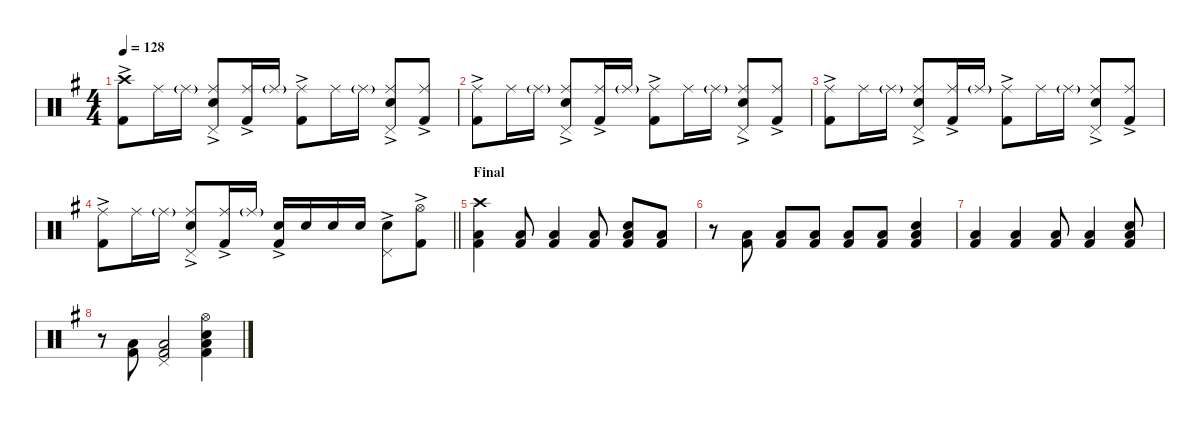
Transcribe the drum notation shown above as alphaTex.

\defaultSystemsLayout 4
\hideDynamics
\bracketExtendMode nobrackets
\singleTrackTrackNamePolicy hidden
\multiTrackTrackNamePolicy hidden
\firstSystemTrackNameMode fullname
\firstSystemTrackNameOrientation horizontal
\otherSystemsTrackNameOrientation horizontal
\track ("Drums" "drm.") {instrument percussion}
\staff {score}
\articulation defaults
\ts (4 4)
\tempo 128
\clef neutral
\ks g
("Crash high (hit)"{acc forcenatural} "Kick (hit) 2"{ac acc forcenatural}).8{dy f beam Down} "Ride (middle)"{acc forcenatural}.16{beam Down} "Ride (middle)"{g acc forcenatural}.16{dy mf beam Down} ("Ride (middle)"{acc forcenatural} "Pedal Hi-Hat (hit)"{acc forcenatural} "Snare (hit) 2"{ac acc forcenatural}).8{dy f beam Up} ("Ride (middle)"{acc forcenatural} "Kick (hit) 2"{ac acc forcenatural}).16{beam Up} "Ride (middle)"{g acc forcenatural}.16{dy mf beam Up} ("Ride (middle)"{acc forcenatural} "Kick (hit) 2"{ac acc forcenatural}).8{dy f beam Down} "Ride (middle)"{acc forcenatural}.16{beam Down} "Ride (middle)"{g acc forcenatural}.16{dy mf beam Down} ("Ride (middle)"{acc forcenatural} "Pedal Hi-Hat (hit)"{acc forcenatural} "Snare (hit) 2"{ac acc forcenatural}).8{dy f beam Up} ("Ride (middle)"{acc forcenatural} "Kick (hit) 2"{ac acc forcenatural}).8{beam Up} |
("Ride (middle)"{acc forcenatural} "Kick (hit) 2"{ac acc forcenatural}).8{beam Down} "Ride (middle)"{acc forcenatural}.16{beam Down} "Ride (middle)"{g acc forcenatural}.16{dy mf beam Down} ("Ride (middle)"{acc forcenatural} "Pedal Hi-Hat (hit)"{acc forcenatural} "Snare (hit) 2"{ac acc forcenatural}).8{dy f beam Up} ("Ride (middle)"{acc forcenatural} "Kick (hit) 2"{ac acc forcenatural}).16{beam Up} "Ride (middle)"{g acc forcenatural}.16{dy mf beam Up} ("Ride (middle)"{acc forcenatural} "Kick (hit) 2"{ac acc forcenatural}).8{dy f beam Down} "Ride (middle)"{acc forcenatural}.16{beam Down} "Ride (middle)"{g acc forcenatural}.16{dy mf beam Down} ("Ride (middle)"{acc forcenatural} "Pedal Hi-Hat (hit)"{acc forcenatural} "Snare (hit) 2"{ac acc forcenatural}).8{dy f beam Up} ("Ride (middle)"{acc forcenatural} "Kick (hit) 2"{ac acc forcenatural}).8{beam Up} |
("Ride (middle)"{acc forcenatural} "Kick (hit) 2"{ac acc forcenatural}).8{beam Down} "Ride (middle)"{acc forcenatural}.16{beam Down} "Ride (middle)"{g acc forcenatural}.16{dy mf beam Down} ("Ride (middle)"{acc forcenatural} "Pedal Hi-Hat (hit)"{acc forcenatural} "Snare (hit) 2"{ac acc forcenatural}).8{dy f beam Up} ("Ride (middle)"{acc forcenatural} "Kick (hit) 2"{ac acc forcenatural}).16{beam Up} "Ride (middle)"{g acc forcenatural}.16{dy mf beam Up} ("Ride (middle)"{acc forcenatural} "Kick (hit) 2"{ac acc forcenatural}).8{dy f beam Down} "Ride (middle)"{acc forcenatural}.16{beam Down} "Ride (middle)"{g acc forcenatural}.16{dy mf beam Down} ("Ride (middle)"{acc forcenatural} "Pedal Hi-Hat (hit)"{acc forcenatural} "Snare (hit) 2"{ac acc forcenatural}).8{dy f beam Up} ("Ride (middle)"{acc forcenatural} "Kick (hit) 2"{ac acc forcenatural}).8{beam Up} |
\barLineRight lightlight
("Ride (middle)"{acc forcenatural} "Kick (hit) 2"{ac acc forcenatural}).8{beam Down} "Ride (middle)"{acc forcenatural}.16{beam Down} "Ride (middle)"{g acc forcenatural}.16{dy mf beam Down} ("Ride (middle)"{acc forcenatural} "Pedal Hi-Hat (hit)"{acc forcenatural} "Snare (hit) 2"{ac acc forcenatural}).8{dy f beam Up} ("Ride (middle)"{acc forcenatural} "Kick (hit) 2"{ac acc forcenatural}).16{beam Up} "Ride (middle)"{g acc forcenatural}.16{dy mf beam Up} ("Snare (hit) 2"{acc forcenatural} "Kick (hit) 2"{ac acc forcenatural}).16{dy f beam Up} "Snare (hit) 2"{acc forcenatural}.16{beam Up} "Snare (hit) 2"{acc forcenatural}.16{beam Up} "Snare (hit) 2"{acc forcenatural}.16{beam Up} ("Pedal Hi-Hat (hit)"{acc forcenatural} "Snare (hit) 2"{ac acc forcenatural}).8{beam Down} ("Hi-Hat (open)"{acc forcenatural} "Kick (hit) 2"{ac acc forcenatural}).8{beam Down} |
\section ("" "Final")
("Crash high (hit)"{acc forcenatural} "Low Floor Tom (hit)"{acc forcenatural} "Kick (hit) 2"{acc forcenatural}).4{beam Down} ("Low Tom (hit)"{acc forcenatural} "Kick (hit) 2"{acc forcenatural}).8{beam Up} ("Low Floor Tom (hit)"{acc forcenatural} "Kick (hit) 2"{acc forcenatural}).4{beam Up} ("Low Tom (hit)"{acc forcenatural} "Kick (hit) 2"{acc forcenatural}).8{beam Up} ("Snare (hit) 2"{acc forcenatural} "Low Floor Tom (hit)"{acc forcenatural} "Kick (hit) 2"{acc forcenatural}).8{beam Up} ("Low Tom (hit)"{acc forcenatural} "Kick (hit) 2"{acc forcenatural}).8{beam Up} |
r.8{beam Down} ("Low Tom (hit)"{acc forcenatural} "Kick (hit) 2"{acc forcenatural}).8{beam Up} ("Low Floor Tom (hit)"{acc forcenatural} "Kick (hit) 2"{acc forcenatural}).8{beam Up} ("Low Tom (hit)"{acc forcenatural} "Kick (hit) 2"{acc forcenatural}).8{beam Up} ("Low Floor Tom (hit)"{acc forcenatural} "Kick (hit) 2"{acc forcenatural}).8{beam Up} ("Low Tom (hit)"{acc forcenatural} "Kick (hit) 2"{acc forcenatural}).8{beam Up} ("Snare (hit) 2"{acc forcenatural} "Low Floor Tom (hit)"{acc forcenatural} "Kick (hit) 2"{acc forcenatural}).4{beam Up} |
("Low Floor Tom (hit)"{acc forcenatural} "Kick (hit) 2"{acc forcenatural}).4{beam Up} ("Low Tom (hit)"{acc forcenatural} "Kick (hit) 2"{acc forcenatural}).4{beam Up} ("Low Floor Tom (hit)"{acc forcenatural} "Kick (hit) 2"{acc forcenatural}).8{beam Up} ("Low Tom (hit)"{acc forcenatural} "Kick (hit) 2"{acc forcenatural}).4{beam Up} ("Snare (hit) 2"{acc forcenatural} "Low Floor Tom (hit)"{acc forcenatural} "Kick (hit) 2"{acc forcenatural}).8{beam Up} |
r.8{beam Down} ("Low Tom (hit)"{acc forcenatural} "Kick (hit) 2"{acc forcenatural}).8{beam Up} ("Pedal Hi-Hat (hit)"{acc forcenatural} "Low Floor Tom (hit)"{acc forcenatural} "Kick (hit) 2"{acc forcenatural}).2{beam Up} ("Hi-Hat (open)"{acc forcenatural} "Snare (hit) 2"{acc forcenatural} "Low Floor Tom (hit)"{acc forcenatural} "Kick (hit) 2"{acc forcenatural}).4{beam Down}
